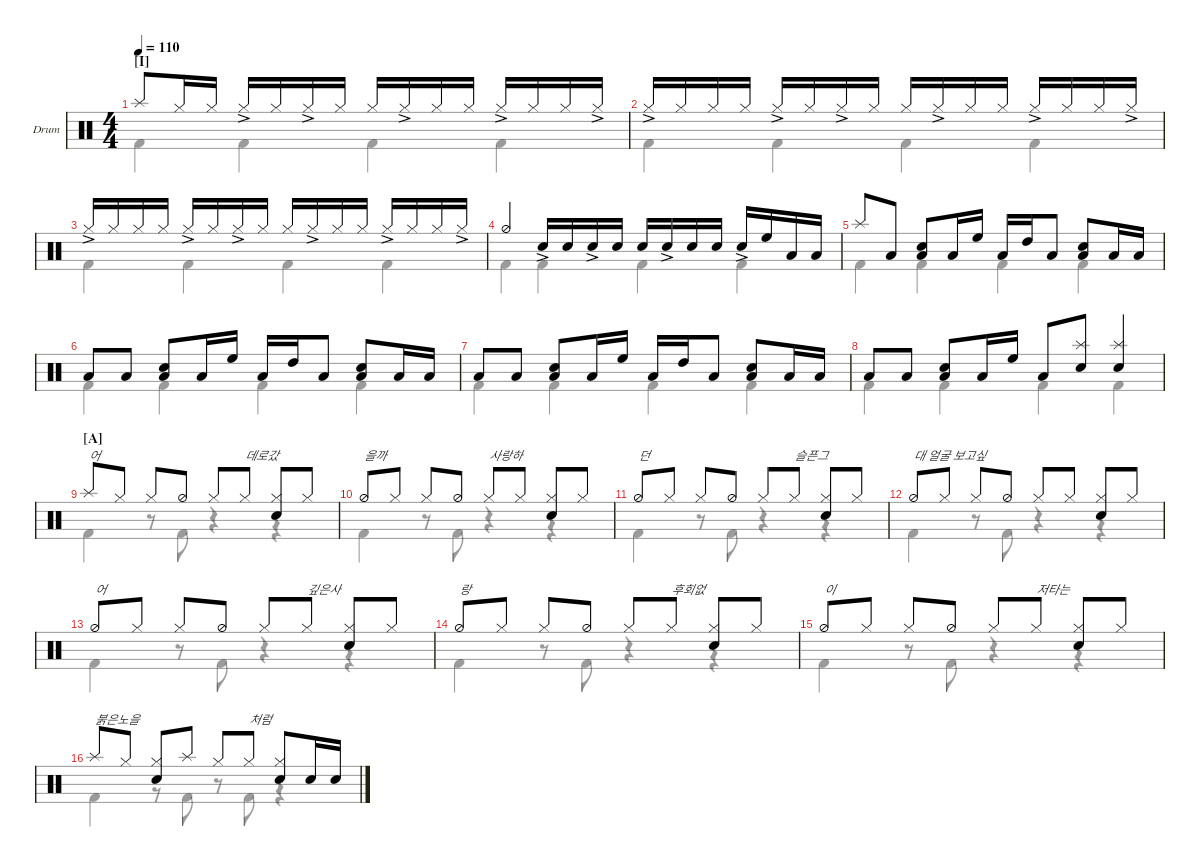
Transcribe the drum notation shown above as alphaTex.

\defaultSystemsLayout 4
\hideDynamics
\bracketExtendMode nobrackets
\firstSystemTrackNameOrientation horizontal
\track ("Drumkit" "Drum") {instrument percussion}
\staff {score}
\articulation defaults
\voice
\ts (4 4)
\section ("I" "")
\tempo 110
\clef neutral
\ks c "Splash (hit)".8{dy mf beam Up} "Hi-Hat (closed)".16{beam Up} "Hi-Hat (closed)".16{beam Up} "Hi-Hat (closed)"{ac}.16{beam Up} "Hi-Hat (closed)".16{beam Up} "Hi-Hat (closed)"{ac}.16{beam Up} "Hi-Hat (closed)".16{beam Up} "Hi-Hat (closed)".16{beam Up} "Hi-Hat (closed)"{ac}.16{beam Up} "Hi-Hat (closed)".16{beam Up} "Hi-Hat (closed)".16{beam Up} "Hi-Hat (closed)"{ac}.16{beam Up} "Hi-Hat (closed)".16{beam Up} "Hi-Hat (closed)".16{beam Up} "Hi-Hat (closed)"{ac}.16{beam Up}
|
"Hi-Hat (closed)"{ac}.16{beam Up} "Hi-Hat (closed)".16{beam Up} "Hi-Hat (closed)".16{beam Up} "Hi-Hat (closed)".16{beam Up} "Hi-Hat (closed)"{ac}.16{beam Up} "Hi-Hat (closed)".16{beam Up} "Hi-Hat (closed)"{ac}.16{beam Up} "Hi-Hat (closed)".16{beam Up} "Hi-Hat (closed)".16{beam Up} "Hi-Hat (closed)"{ac}.16{beam Up} "Hi-Hat (closed)".16{beam Up} "Hi-Hat (closed)".16{beam Up} "Hi-Hat (closed)"{ac}.16{beam Up} "Hi-Hat (closed)".16{beam Up} "Hi-Hat (closed)".16{beam Up} "Hi-Hat (closed)"{ac}.16{beam Up} |
"Hi-Hat (closed)"{ac}.16{beam Up} "Hi-Hat (closed)".16{beam Up} "Hi-Hat (closed)".16{beam Up} "Hi-Hat (closed)".16{beam Up} "Hi-Hat (closed)"{ac}.16{beam Up} "Hi-Hat (closed)".16{beam Up} "Hi-Hat (closed)"{ac}.16{beam Up} "Hi-Hat (closed)".16{beam Up} "Hi-Hat (closed)".16{beam Up} "Hi-Hat (closed)"{ac}.16{beam Up} "Hi-Hat (closed)".16{beam Up} "Hi-Hat (closed)".16{beam Up} "Hi-Hat (closed)"{ac}.16{beam Up} "Hi-Hat (closed)".16{beam Up} "Hi-Hat (closed)".16{beam Up} "Hi-Hat (closed)"{ac}.16{beam Up} |
"Hi-Hat (half)".4{beam Up} "Snare (hit) 2"{ac}.16{beam Up} "Snare (hit) 2".16{beam Up} "Snare (hit) 2"{ac}.16{beam Up} "Snare (hit) 2".16{beam Up} "Snare (hit) 2".16{beam Up} "Snare (hit) 2"{ac}.16{beam Up} "Snare (hit) 2".16{beam Up} "Snare (hit) 2".16{beam Up} "Snare (hit) 2"{ac}.16{beam Up} "High Floor Tom (hit)".16{beam Up} "Low Tom (hit)".16{beam Up} "Low Tom (hit)".16{beam Up} |
"Splash (hit)".8{beam Up} "Low Tom (hit)".8{beam Up} ("Low Tom (hit)" "Snare (hit) 2").8{beam Up} "Low Tom (hit)".16{beam Up} "High Floor Tom (hit)".16{beam Up} "Low Tom (hit)".16{beam Up} "High Tom (hit)".16{beam Up} "Low Tom (hit)".8{beam Up} ("Low Tom (hit)" "Snare (hit) 2").8{beam Up} "Low Tom (hit)".16{beam Up} "Low Tom (hit)".16{beam Up} |
"Low Tom (hit)".8{beam Up} "Low Tom (hit)".8{beam Up} ("Low Tom (hit)" "Snare (hit) 2").8{beam Up} "Low Tom (hit)".16{beam Up} "High Floor Tom (hit)".16{beam Up} "Low Tom (hit)".16{beam Up} "High Tom (hit)".16{beam Up} "Low Tom (hit)".8{beam Up} ("Low Tom (hit)" "Snare (hit) 2").8{beam Up} "Low Tom (hit)".16{beam Up} "Low Tom (hit)".16{beam Up} |
"Low Tom (hit)".8{beam Up} "Low Tom (hit)".8{beam Up} ("Low Tom (hit)" "Snare (hit) 2").8{beam Up} "Low Tom (hit)".16{beam Up} "High Floor Tom (hit)".16{beam Up} "Low Tom (hit)".16{beam Up} "High Tom (hit)".16{beam Up} "Low Tom (hit)".8{beam Up} ("Low Tom (hit)" "Snare (hit) 2").8{beam Up} "Low Tom (hit)".16{beam Up} "Low Tom (hit)".16{beam Up} |
"Low Tom (hit)".8{beam Up} "Low Tom (hit)".8{beam Up} ("Low Tom (hit)" "Snare (hit) 2").8{beam Up} "Low Tom (hit)".16{beam Up} "High Floor Tom (hit)".16{beam Up} "Low Tom (hit)".8{beam Up} ("Snare (hit) 2" "Splash (hit)").8{beam Up} ("Snare (hit) 2" "Splash (hit)").4{beam Up} |
\section ("A" "")
"Splash (hit)".8{txt "어" beam Up} "Hi-Hat (closed)".8{beam Up} "Hi-Hat (closed)".8{beam Up} "Hi-Hat (half)".8{beam Up} "Hi-Hat (closed)".8{beam Up} "Hi-Hat (closed)".8{txt "데로갔" beam Up} ("Hi-Hat (closed)" "Snare (hit) 2").8{beam Up} "Hi-Hat (closed)".8{beam Up} |
"Hi-Hat (half)".8{txt "을까" beam Up} "Hi-Hat (closed)".8{beam Up} "Hi-Hat (closed)".8{beam Up} "Hi-Hat (half)".8{beam Up} "Hi-Hat (closed)".8{txt "사랑하" beam Up} "Hi-Hat (closed)".8{beam Up} ("Hi-Hat (closed)" "Snare (hit) 2").8{beam Up} "Hi-Hat (closed)".8{beam Up} |
"Hi-Hat (half)".8{txt "던" beam Up} "Hi-Hat (closed)".8{beam Up} "Hi-Hat (closed)".8{beam Up} "Hi-Hat (half)".8{beam Up} "Hi-Hat (closed)".8{beam Up} "Hi-Hat (closed)".8{txt "슬픈그" beam Up} ("Hi-Hat (closed)" "Snare (hit) 2").8{beam Up} "Hi-Hat (closed)".8{beam Up} |
"Hi-Hat (half)".8{txt "대 얼굴 보고싶" beam Up} "Hi-Hat (closed)".8{beam Up} "Hi-Hat (closed)".8{beam Up} "Hi-Hat (half)".8{beam Up} "Hi-Hat (closed)".8{beam Up} "Hi-Hat (closed)".8{beam Up} ("Hi-Hat (closed)" "Snare (hit) 2").8{beam Up} "Hi-Hat (closed)".8{beam Up} |
"Hi-Hat (half)".8{txt "어" beam Up} "Hi-Hat (closed)".8{beam Up} "Hi-Hat (closed)".8{beam Up} "Hi-Hat (half)".8{beam Up} "Hi-Hat (closed)".8{beam Up} "Hi-Hat (closed)".8{txt "깊은사" beam Up} ("Hi-Hat (closed)" "Snare (hit) 2").8{beam Up} "Hi-Hat (closed)".8{beam Up} |
"Hi-Hat (half)".8{txt "랑" beam Up} "Hi-Hat (closed)".8{beam Up} "Hi-Hat (closed)".8{beam Up} "Hi-Hat (half)".8{beam Up} "Hi-Hat (closed)".8{beam Up} "Hi-Hat (closed)".8{txt "후회없" beam Up} ("Hi-Hat (closed)" "Snare (hit) 2").8{beam Up} "Hi-Hat (closed)".8{beam Up} |
"Hi-Hat (half)".8{txt "이" beam Up} "Hi-Hat (closed)".8{beam Up} "Hi-Hat (closed)".8{beam Up} "Hi-Hat (half)".8{beam Up} "Hi-Hat (closed)".8{beam Up} "Hi-Hat (closed)".8{txt "저타는" beam Up} ("Hi-Hat (closed)" "Snare (hit) 2").8{beam Up} "Hi-Hat (closed)".8{beam Up} |
"Splash (hit)".8{txt "붉은노을" beam Up} "Hi-Hat (closed)".8{beam Up} ("Hi-Hat (closed)" "Snare (hit) 2").8{beam Up} "Splash (hit)".8{beam Up} "Hi-Hat (closed)".8{beam Up} "Hi-Hat (closed)".8{txt "처럼" beam Up} ("Hi-Hat (closed)" "Snare (hit) 2").8{beam Up} "Snare (hit) 2".16{beam Up} "Snare (hit) 2".16{beam Up}
\voice
\clef neutral
\ottava regular
\simile none
\ks c
|
|
|
|
|
|
|
|
|
|
|
|
|
|
|
\voice
\clef neutral
\ottava regular
\simile none
\ks c "Kick (hit) 2".4{dy mf beam Down} "Kick (hit) 2".4{beam Down} "Kick (hit) 2".4{beam Down} "Kick (hit) 2".4{beam Down}
|
"Kick (hit) 2".4{beam Down} "Kick (hit) 2".4{beam Down} "Kick (hit) 2".4{beam Down} "Kick (hit) 2".4{beam Down} |
"Kick (hit) 2".4{beam Down} "Kick (hit) 2".4{beam Down} "Kick (hit) 2".4{beam Down} "Kick (hit) 2".4{beam Down} |
"Kick (hit) 2".4{beam Down} "Kick (hit) 2".4{beam Down} "Kick (hit) 2".4{beam Down} "Kick (hit) 2".4{beam Down} |
"Kick (hit) 2".4{beam Down} "Kick (hit) 2".4{beam Down} "Kick (hit) 2".4{beam Down} "Kick (hit) 2".4{beam Down} |
"Kick (hit) 2".4{beam Down} "Kick (hit) 2".4{beam Down} "Kick (hit) 2".4{beam Down} "Kick (hit) 2".4{beam Down} |
"Kick (hit) 2".4{beam Down} "Kick (hit) 2".4{beam Down} "Kick (hit) 2".4{beam Down} "Kick (hit) 2".4{beam Down} |
"Kick (hit) 2".4{beam Down} "Kick (hit) 2".4{beam Down} "Kick (hit) 2".4{beam Down} "Kick (hit) 2".4{beam Down} |
"Kick (hit) 2".4{beam Down} r.8{beam Down} "Kick (hit) 2".8{beam Down} r.4{beam Down} r.4{beam Down} |
"Kick (hit) 2".4{beam Down} r.8{beam Down} "Kick (hit) 2".8{beam Down} r.4{beam Down} r.4{beam Down} |
"Kick (hit) 2".4{beam Down} r.8{beam Down} "Kick (hit) 2".8{beam Down} r.4{beam Down} r.4{beam Down} |
"Kick (hit) 2".4{beam Down} r.8{beam Down} "Kick (hit) 2".8{beam Down} r.4{beam Down} r.4{beam Down} |
"Kick (hit) 2".4{beam Down} r.8{beam Down} "Kick (hit) 2".8{beam Down} r.4{beam Down} r.4{beam Down} |
"Kick (hit) 2".4{beam Down} r.8{beam Down} "Kick (hit) 2".8{beam Down} r.4{beam Down} r.4{beam Down} |
"Kick (hit) 2".4{beam Down} r.8{beam Down} "Kick (hit) 2".8{beam Down} r.4{beam Down} r.4{beam Down} |
"Kick (hit) 2".4{beam Down} r.8{beam Down} "Kick (hit) 2".8{beam Down} r.8{beam Down} "Kick (hit) 2".8{beam Down} r.4{beam Down}
